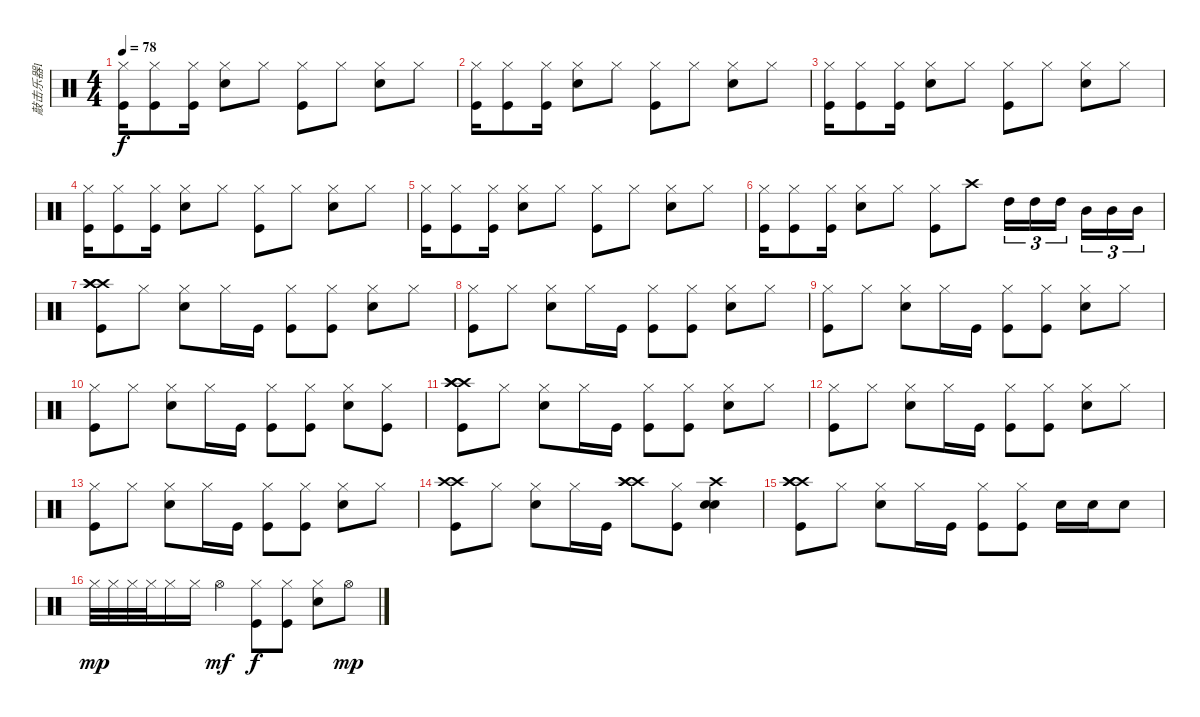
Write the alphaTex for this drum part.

\track ("敲击乐器1" "敲击乐器1") {instrument percussion}
\staff {score}
\articulation defaults
\ts (4 4)
\tempo 78
\clef neutral
\ks c
("Hi-Hat (closed)" "Kick (hit)").16{dy f} ("Hi-Hat (closed)" "Kick (hit)").8 ("Hi-Hat (closed)" "Kick (hit)").16 ("Hi-Hat (closed)" "Snare (hit) 2").8 "Hi-Hat (closed)".8 ("Hi-Hat (closed)" "Kick (hit)").8 "Hi-Hat (closed)".8 ("Hi-Hat (closed)" "Snare (hit) 2").8 "Hi-Hat (closed)".8 |
("Hi-Hat (closed)" "Kick (hit)").16 ("Hi-Hat (closed)" "Kick (hit)").8 ("Hi-Hat (closed)" "Kick (hit)").16 ("Hi-Hat (closed)" "Snare (hit) 2").8 "Hi-Hat (closed)".8 ("Hi-Hat (closed)" "Kick (hit)").8 "Hi-Hat (closed)".8 ("Hi-Hat (closed)" "Snare (hit) 2").8 "Hi-Hat (closed)".8 |
("Hi-Hat (closed)" "Kick (hit)").16 ("Hi-Hat (closed)" "Kick (hit)").8 ("Hi-Hat (closed)" "Kick (hit)").16 ("Hi-Hat (closed)" "Snare (hit) 2").8 "Hi-Hat (closed)".8 ("Hi-Hat (closed)" "Kick (hit)").8 "Hi-Hat (closed)".8 ("Hi-Hat (closed)" "Snare (hit) 2").8 "Hi-Hat (closed)".8 |
("Hi-Hat (closed)" "Kick (hit)").16 ("Hi-Hat (closed)" "Kick (hit)").8 ("Hi-Hat (closed)" "Kick (hit)").16 ("Hi-Hat (closed)" "Snare (hit) 2").8 "Hi-Hat (closed)".8 ("Hi-Hat (closed)" "Kick (hit)").8 "Hi-Hat (closed)".8 ("Hi-Hat (closed)" "Snare (hit) 2").8 "Hi-Hat (closed)".8 |
("Hi-Hat (closed)" "Kick (hit)").16 ("Hi-Hat (closed)" "Kick (hit)").8 ("Hi-Hat (closed)" "Kick (hit)").16 ("Hi-Hat (closed)" "Snare (hit) 2").8 "Hi-Hat (closed)".8 ("Hi-Hat (closed)" "Kick (hit)").8 "Hi-Hat (closed)".8 ("Hi-Hat (closed)" "Snare (hit) 2").8 "Hi-Hat (closed)".8 |
("Hi-Hat (closed)" "Kick (hit)").16 ("Hi-Hat (closed)" "Kick (hit)").8 ("Hi-Hat (closed)" "Kick (hit)").16 ("Hi-Hat (closed)" "Snare (hit) 2").8 "Hi-Hat (closed)".8 ("Hi-Hat (closed)" "Kick (hit)").8 "Crash high (hit)".8 "High Tom (hit)".16{tu (3 2)} "High Tom (hit)".16{tu (3 2)} "High Tom (hit)".16{tu (3 2)} "Mid Tom (hit)".16{tu (3 2)} "Mid Tom (hit)".16{tu (3 2)} "Mid Tom (hit)".16{tu (3 2)} |
("Crash high (hit)" "Kick (hit)" "Crash high (hit)" "Crash high (hit)").8 "Hi-Hat (closed)".8 ("Hi-Hat (closed)" "Snare (hit) 2").8 "Hi-Hat (closed)".16 "Kick (hit)".16 ("Hi-Hat (closed)" "Kick (hit)").8 ("Hi-Hat (closed)" "Kick (hit)").8 ("Hi-Hat (closed)" "Snare (hit) 2").8 "Hi-Hat (closed)".8 |
("Hi-Hat (closed)" "Kick (hit)").8 "Hi-Hat (closed)".8 ("Hi-Hat (closed)" "Snare (hit) 2").8 "Hi-Hat (closed)".16 "Kick (hit)".16 ("Hi-Hat (closed)" "Kick (hit)").8 ("Hi-Hat (closed)" "Kick (hit)").8 ("Hi-Hat (closed)" "Snare (hit) 2").8 "Hi-Hat (closed)".8 |
("Hi-Hat (closed)" "Kick (hit)").8 "Hi-Hat (closed)".8 ("Hi-Hat (closed)" "Snare (hit) 2").8 "Hi-Hat (closed)".16 "Kick (hit)".16 ("Hi-Hat (closed)" "Kick (hit)").8 ("Hi-Hat (closed)" "Kick (hit)").8 ("Hi-Hat (closed)" "Snare (hit) 2").8 "Hi-Hat (closed)".8 |
("Hi-Hat (closed)" "Kick (hit)").8 "Hi-Hat (closed)".8 ("Hi-Hat (closed)" "Snare (hit) 2").8 "Hi-Hat (closed)".16 "Kick (hit)".16 ("Hi-Hat (closed)" "Kick (hit)").8 ("Hi-Hat (closed)" "Kick (hit)").8 ("Hi-Hat (closed)" "Snare (hit) 2").8 ("Hi-Hat (closed)" "Kick (hit)").8 |
("Crash high (hit)" "Kick (hit)" "Crash high (hit)" "Crash high (hit)").8 "Hi-Hat (closed)".8 ("Hi-Hat (closed)" "Snare (hit) 2").8 "Hi-Hat (closed)".16 "Kick (hit)".16 ("Hi-Hat (closed)" "Kick (hit)").8 ("Hi-Hat (closed)" "Kick (hit)").8 ("Hi-Hat (closed)" "Snare (hit) 2").8 "Hi-Hat (closed)".8 |
("Hi-Hat (closed)" "Kick (hit)").8 "Hi-Hat (closed)".8 ("Hi-Hat (closed)" "Snare (hit) 2").8 "Hi-Hat (closed)".16 "Kick (hit)".16 ("Hi-Hat (closed)" "Kick (hit)").8 ("Hi-Hat (closed)" "Kick (hit)").8 ("Hi-Hat (closed)" "Snare (hit) 2").8 "Hi-Hat (closed)".8 |
("Hi-Hat (closed)" "Kick (hit)").8 "Hi-Hat (closed)".8 ("Hi-Hat (closed)" "Snare (hit) 2").8 "Hi-Hat (closed)".16 "Kick (hit)".16 ("Hi-Hat (closed)" "Kick (hit)").8 ("Hi-Hat (closed)" "Kick (hit)").8 ("Hi-Hat (closed)" "Snare (hit) 2").8 "Hi-Hat (closed)".8 |
("Crash high (hit)" "Kick (hit)" "Crash high (hit)").8 "Hi-Hat (closed)".8 ("Hi-Hat (closed)" "Snare (hit) 2").8 "Hi-Hat (closed)".16 "Kick (hit)".16 ("Crash high (hit)" "Crash high (hit)" "Crash high (hit)").8 ("Hi-Hat (closed)" "Kick (hit)").8 ("Crash high (hit)" "Snare (hit) 2" "Snare (hit) 2").4 |
("Crash high (hit)" "Kick (hit)" "Crash high (hit)" "Crash high (hit)").8 "Hi-Hat (closed)".8 ("Hi-Hat (closed)" "Snare (hit) 2").8 "Hi-Hat (closed)".16 "Kick (hit)".16 ("Hi-Hat (closed)" "Kick (hit)").8 ("Hi-Hat (closed)" "Kick (hit)").8 "Electric Snare (hit)".16 "Electric Snare (hit)".16 "Snare (hit) 2".8 |
"Hi-Hat (closed)".32{dy mp} "Hi-Hat (closed)".32 "Hi-Hat (closed)".32 "Hi-Hat (closed)".32 "Hi-Hat (closed)".16 "Hi-Hat (closed)".16 "Hi-Hat (open)".4{dy mf} ("Hi-Hat (closed)" "Kick (hit)").8{dy f} ("Hi-Hat (closed)" "Kick (hit)").8 ("Hi-Hat (closed)" "Snare (hit) 2").8 "Hi-Hat (open)".8{dy mp}
